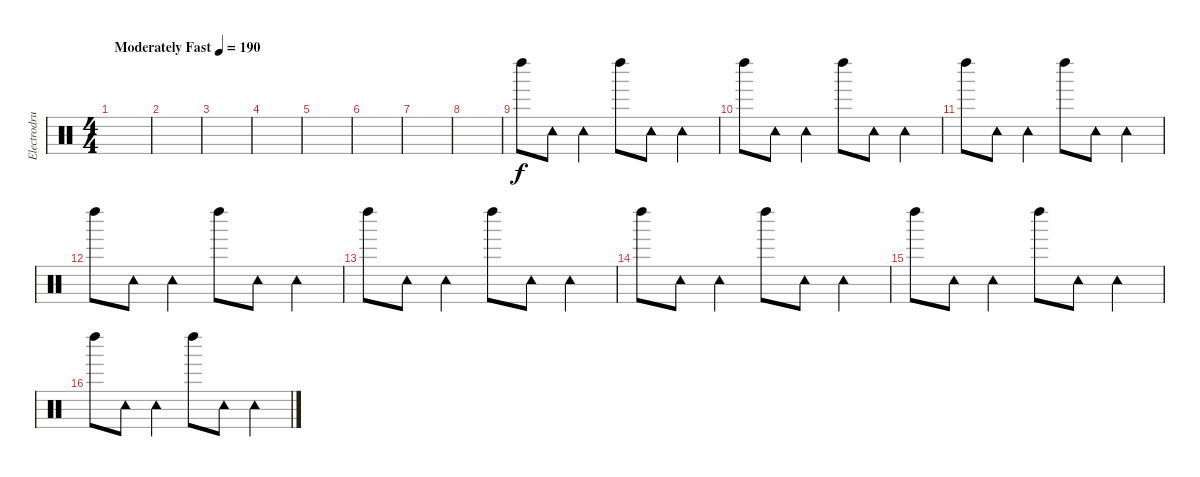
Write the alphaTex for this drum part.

\track ("Electrodrums2" "Electrodru") {instrument percussion}
\staff {score}
\articulation defaults
\ts (4 4)
\tempo (190 "Moderately Fast")
\clef neutral
\ks c
|
|
|
|
|
|
|
|
"Left Maraca (hit)".8 "Tambourine (hit)".8 "Tambourine (hit)".4 "Left Maraca (hit)".8 "Tambourine (hit)".8 "Tambourine (hit)".4 |
"Left Maraca (hit)".8 "Tambourine (hit)".8 "Tambourine (hit)".4 "Left Maraca (hit)".8 "Tambourine (hit)".8 "Tambourine (hit)".4 |
"Left Maraca (hit)".8 "Tambourine (hit)".8 "Tambourine (hit)".4 "Left Maraca (hit)".8 "Tambourine (hit)".8 "Tambourine (hit)".4 |
"Left Maraca (hit)".8 "Tambourine (hit)".8 "Tambourine (hit)".4 "Left Maraca (hit)".8 "Tambourine (hit)".8 "Tambourine (hit)".4 |
"Left Maraca (hit)".8 "Tambourine (hit)".8 "Tambourine (hit)".4 "Left Maraca (hit)".8 "Tambourine (hit)".8 "Tambourine (hit)".4 |
"Left Maraca (hit)".8 "Tambourine (hit)".8 "Tambourine (hit)".4 "Left Maraca (hit)".8 "Tambourine (hit)".8 "Tambourine (hit)".4 |
"Left Maraca (hit)".8 "Tambourine (hit)".8 "Tambourine (hit)".4 "Left Maraca (hit)".8 "Tambourine (hit)".8 "Tambourine (hit)".4 |
"Left Maraca (hit)".8 "Tambourine (hit)".8 "Tambourine (hit)".4 "Left Maraca (hit)".8 "Tambourine (hit)".8 "Tambourine (hit)".4
